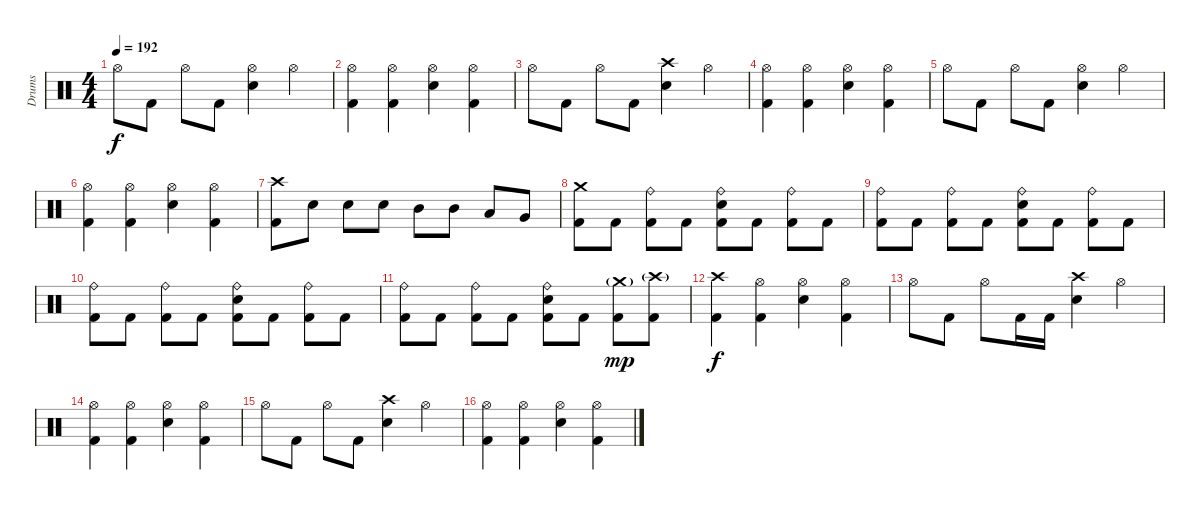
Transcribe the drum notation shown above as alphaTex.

\track ("Drums" "Drums") {instrument percussion}
\staff {score}
\articulation defaults
\ts (4 4)
\tempo 192
\clef neutral
\ks c "Hi-Hat (open)".8{dy f} "Kick (hit) 2".8 "Hi-Hat (open)".8 "Kick (hit) 2".8
("Hi-Hat (open)" "Electric Snare (hit)").4 "Hi-Hat (open)".4 |
("Hi-Hat (open)" "Kick (hit) 2").4 ("Hi-Hat (open)" "Kick (hit) 2").4 ("Hi-Hat (open)" "Electric Snare (hit)").4 ("Hi-Hat (open)" "Kick (hit) 2").4 |
"Hi-Hat (open)".8 "Kick (hit) 2".8 "Hi-Hat (open)".8 "Kick (hit) 2".8 ("Crash high (hit)" "Electric Snare (hit)").4 "Hi-Hat (open)".4 |
("Hi-Hat (open)" "Kick (hit) 2").4 ("Hi-Hat (open)" "Kick (hit) 2").4 ("Hi-Hat (open)" "Electric Snare (hit)").4 ("Hi-Hat (open)" "Kick (hit) 2").4 |
"Hi-Hat (open)".8 "Kick (hit) 2".8 "Hi-Hat (open)".8 "Kick (hit) 2".8 ("Hi-Hat (open)" "Electric Snare (hit)").4 "Hi-Hat (open)".4 |
("Hi-Hat (open)" "Kick (hit) 2").4 ("Hi-Hat (open)" "Kick (hit) 2").4 ("Hi-Hat (open)" "Electric Snare (hit)").4 ("Hi-Hat (open)" "Kick (hit) 2").4 |
("Crash high (hit)" "Kick (hit) 2").8 "Electric Snare (hit)".8 "Electric Snare (hit)".8 "Electric Snare (hit)".8 "Mid Tom (hit)".8 "Mid Tom (hit)".8 "Low Tom (hit)".8 "Very Low Tom (hit)".8 |
("Crash medium (hit)" "Kick (hit) 2").8 "Kick (hit) 2".8 ("Ride (bell)" "Kick (hit) 2").8 "Kick (hit) 2".8 ("Ride (bell)" "Electric Snare (hit)" "Kick (hit) 2").8 "Kick (hit) 2".8 ("Ride (bell)" "Kick (hit) 2").8 "Kick (hit) 2".8 |
("Ride (bell)" "Kick (hit) 2").8 "Kick (hit) 2".8 ("Ride (bell)" "Kick (hit) 2").8 "Kick (hit) 2".8 ("Ride (bell)" "Electric Snare (hit)" "Kick (hit) 2").8 "Kick (hit) 2".8 ("Ride (bell)" "Kick (hit) 2").8 "Kick (hit) 2".8 |
("Ride (bell)" "Kick (hit) 2").8 "Kick (hit) 2".8 ("Ride (bell)" "Kick (hit) 2").8 "Kick (hit) 2".8 ("Ride (bell)" "Electric Snare (hit)" "Kick (hit) 2").8 "Kick (hit) 2".8 ("Ride (bell)" "Kick (hit) 2").8 "Kick (hit) 2".8 |
("Ride (bell)" "Kick (hit) 2").8 "Kick (hit) 2".8 ("Ride (bell)" "Kick (hit) 2").8 "Kick (hit) 2".8 ("Ride (bell)" "Electric Snare (hit)" "Kick (hit) 2").8 "Kick (hit) 2".8 ("Crash medium (hit)"{g} "Kick (hit) 2").8{dy mp} ("Crash high (hit)"{g} "Kick (hit) 2").8 |
("Crash high (hit)" "Kick (hit) 2").4{dy f} ("Hi-Hat (open)" "Kick (hit) 2").4 ("Hi-Hat (open)" "Electric Snare (hit)").4 ("Hi-Hat (open)" "Kick (hit) 2").4 |
"Hi-Hat (open)".8 "Kick (hit) 2".8 "Hi-Hat (open)".8 "Kick (hit) 2".16 "Kick (hit) 2".16 ("Crash high (hit)" "Electric Snare (hit)").4 "Hi-Hat (open)".4 |
("Hi-Hat (open)" "Kick (hit) 2").4 ("Hi-Hat (open)" "Kick (hit) 2").4 ("Hi-Hat (open)" "Electric Snare (hit)").4 ("Hi-Hat (open)" "Kick (hit) 2").4 |
"Hi-Hat (open)".8 "Kick (hit) 2".8 "Hi-Hat (open)".8 "Kick (hit) 2".8 ("Crash high (hit)" "Electric Snare (hit)").4 "Hi-Hat (open)".4 |
("Hi-Hat (open)" "Kick (hit) 2").4 ("Hi-Hat (open)" "Kick (hit) 2").4 ("Hi-Hat (open)" "Electric Snare (hit)").4 ("Hi-Hat (open)" "Kick (hit) 2").4
